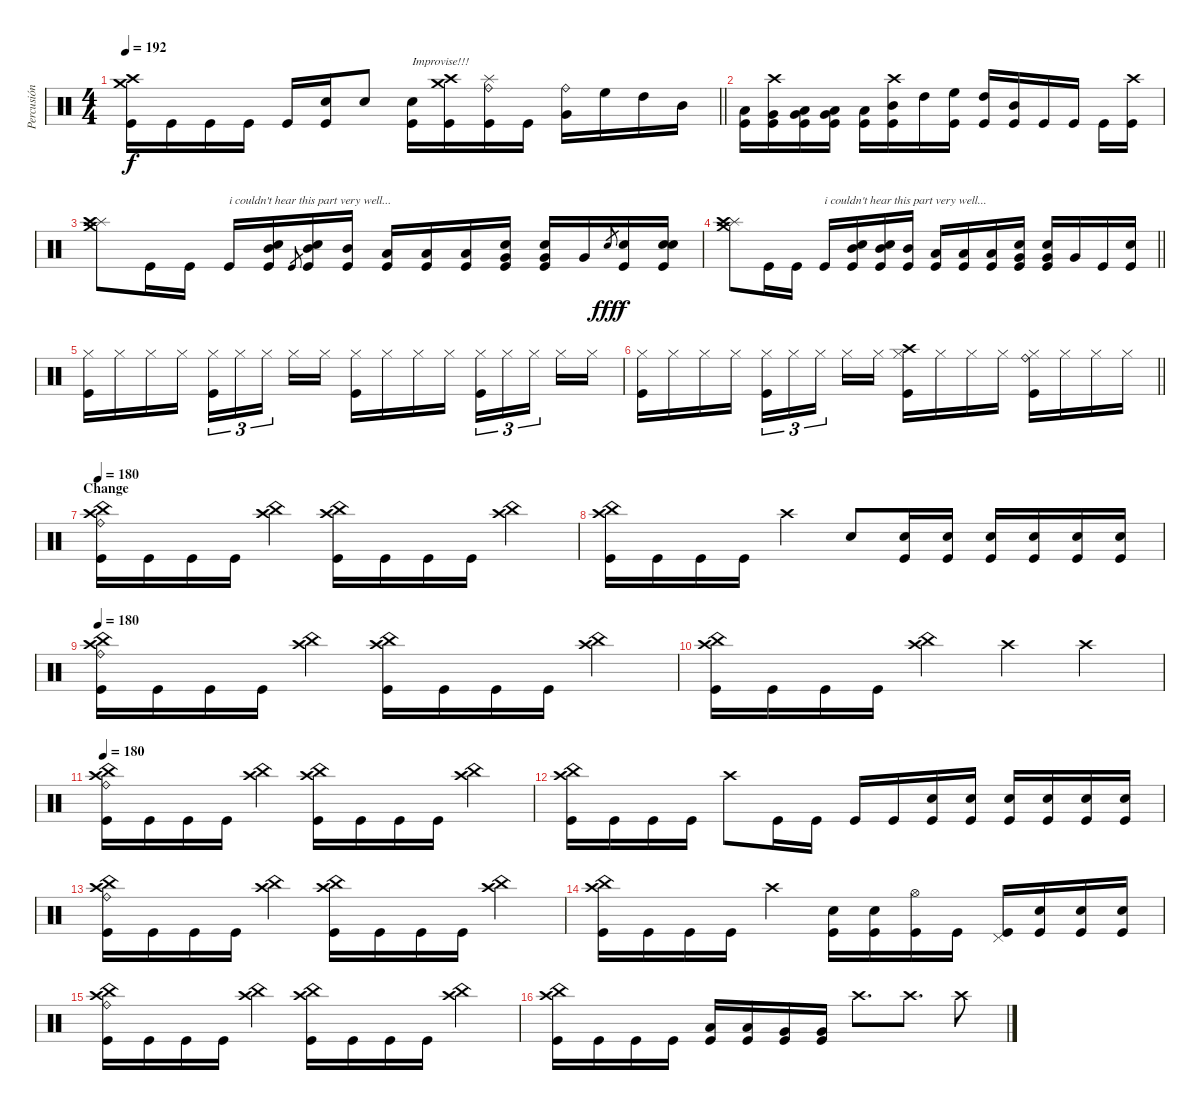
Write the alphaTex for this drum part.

\track ("Percusión" "Percusión") {instrument percussion}
\staff {score}
\articulation defaults
\ts (4 4)
\tempo 192
\clef neutral
\barLineRight lightlight
\ks c
("Crash medium (hit)" "Crash high (hit)" "Kick (hit)").16{dy f} "Kick (hit)".16 "Kick (hit)".16 "Kick (hit)".16 "Kick (hit)".16 ("Electric Snare (hit)" "Kick (hit)").16 "Electric Snare (hit)".8 ("Electric Snare (hit)" "Kick (hit)").16{txt "Improvise!!!"} ("Crash medium (hit)" "Crash high (hit)" "Kick (hit)").16 ("Splash (hit)" "Ride (bell)" "Kick (hit)").16 "Kick (hit)".16 ("Ride (bell)" "Very Low Tom (hit)").16 "High Floor Tom (hit)".16 "High Tom (hit)".16 "Mid Tom (hit)".16 |
("Low Tom (hit)" "Kick (hit)").16 ("Very Low Tom (hit)" "Crash high (hit)" "Kick (hit)").16 ("Low Floor Tom (hit)" "Very Low Tom (hit)" "Kick (hit)").16 ("Very Low Tom (hit)" "Low Floor Tom (hit)" "Kick (hit)").16 ("Low Tom (hit)" "Kick (hit)").16 ("Mid Tom (hit)" "Crash high (hit)" "Kick (hit)").16 "High Tom (hit)".16 ("High Floor Tom (hit)" "Kick (hit)").16 ("High Tom (hit)" "Kick (hit)").16 ("Mid Tom (hit)" "Kick (hit)").16 "Kick (hit)".16 "Kick (hit)".16 "Kick (hit)".16 ("Crash high (hit)" "Kick (hit)").16 |
("Crash medium (hit)" "Splash (hit)" "Crash high (hit)").8 "Kick (hit)".16 "Kick (hit)".16 "Kick (hit)".16{txt "i couldn't hear this part very well..."} ("Mid Tom (hit)" "Electric Snare (hit)" "Kick (hit)").16 "Kick (hit)".8{gr} ("Mid Tom (hit)" "Electric Snare (hit)" "Kick (hit)").16 ("Mid Tom (hit)" "Kick (hit)").16 ("Low Tom (hit)" "Kick (hit)").16 ("Low Tom (hit)" "Kick (hit)").16 ("Low Tom (hit)" "Kick (hit)").16 ("Very Low Tom (hit)" "Electric Snare (hit)" "Kick (hit)").16 ("Very Low Tom (hit)" "Electric Snare (hit)" "Kick (hit)").16 "Very Low Tom (hit)".16 "Electric Snare (hit)".8{gr dy fff} ("Kick (hit)" "Electric Snare (hit)").16{dy f} ("Kick (hit)" "Electric Snare (hit)" "Electric Snare (hit)").16 |
\barLineRight lightlight
("Crash medium (hit)" "Splash (hit)" "Crash high (hit)").8 "Kick (hit)".16 "Kick (hit)".16 "Kick (hit)".16{txt "i couldn't hear this part very well..."} ("Mid Tom (hit)" "Electric Snare (hit)" "Kick (hit)").16 ("Mid Tom (hit)" "Electric Snare (hit)" "Kick (hit)").16 ("Mid Tom (hit)" "Kick (hit)").16 ("Low Tom (hit)" "Kick (hit)").16 ("Low Tom (hit)" "Kick (hit)").16 ("Low Tom (hit)" "Kick (hit)").16 ("Very Low Tom (hit)" "Electric Snare (hit)" "Kick (hit)").16 ("Very Low Tom (hit)" "Electric Snare (hit)" "Kick (hit)").16 "Very Low Tom (hit)".16 "Kick (hit)".16 ("Kick (hit)" "Electric Snare (hit)").16 |
("Hi-Hat (closed)" "Kick (hit)").16 "Hi-Hat (closed)".16 "Hi-Hat (closed)".16 "Hi-Hat (closed)".16 ("Hi-Hat (closed)" "Kick (hit)").16{tu (3 2)} "Hi-Hat (closed)".16{tu (3 2)} "Hi-Hat (closed)".16{tu (3 2) beam splitsecondary} "Hi-Hat (closed)".16 "Hi-Hat (closed)".16 ("Hi-Hat (closed)" "Kick (hit)").16 "Hi-Hat (closed)".16 "Hi-Hat (closed)".16 "Hi-Hat (closed)".16 ("Hi-Hat (closed)" "Kick (hit)").16{tu (3 2)} "Hi-Hat (closed)".16{tu (3 2)} "Hi-Hat (closed)".16{tu (3 2) beam splitsecondary} "Hi-Hat (closed)".16 "Hi-Hat (closed)".16 |
\barLineRight lightlight
("Hi-Hat (closed)" "Kick (hit)").16 "Hi-Hat (closed)".16 "Hi-Hat (closed)".16 "Hi-Hat (closed)".16 ("Hi-Hat (closed)" "Kick (hit)").16{tu (3 2)} "Hi-Hat (closed)".16{tu (3 2)} "Hi-Hat (closed)".16{tu (3 2) beam splitsecondary} "Hi-Hat (closed)".16 "Hi-Hat (closed)".16 ("Hi-Hat (closed)" "Kick (hit)" "Crash high (hit)").16 "Hi-Hat (closed)".16 "Hi-Hat (closed)".16 "Hi-Hat (closed)".16 ("Hi-Hat (closed)" "Kick (hit)" "Ride (bell)").16 "Hi-Hat (closed)".16 "Hi-Hat (closed)".16 "Hi-Hat (closed)".16 |
\section ("" "Change")
\tempo 180
("Ride (bell)" "Crash high (hit)" "Kick (hit)" "China (hit)").16 "Kick (hit)".16 "Kick (hit)".16 "Kick (hit)".16 ("Crash high (hit)" "China (hit)").4 ("Crash high (hit)" "Kick (hit)" "China (hit)").16 "Kick (hit)".16 "Kick (hit)".16 "Kick (hit)".16 ("Crash high (hit)" "China (hit)").4 |
("Crash high (hit)" "Kick (hit)" "China (hit)").16 "Kick (hit)".16 "Kick (hit)".16 "Kick (hit)".16 "Crash high (hit)".4 "Electric Snare (hit)".8 ("Electric Snare (hit)" "Kick (hit)").16 ("Electric Snare (hit)" "Kick (hit)").16 ("Electric Snare (hit)" "Kick (hit)").16 ("Electric Snare (hit)" "Kick (hit)").16 ("Electric Snare (hit)" "Kick (hit)").16 ("Electric Snare (hit)" "Kick (hit)").16 |
\tempo 180
("Ride (bell)" "Crash high (hit)" "Kick (hit)" "China (hit)").16 "Kick (hit)".16 "Kick (hit)".16 "Kick (hit)".16 ("Crash high (hit)" "China (hit)").4 ("Crash high (hit)" "Kick (hit)" "China (hit)").16 "Kick (hit)".16 "Kick (hit)".16 "Kick (hit)".16 ("Crash high (hit)" "China (hit)").4 |
("Crash high (hit)" "Kick (hit)" "China (hit)").16 "Kick (hit)".16 "Kick (hit)".16 "Kick (hit)".16 ("China (hit)" "Crash high (hit)").4 "Crash high (hit)".4 "Crash high (hit)".4 |
\tempo 180
("Ride (bell)" "Crash high (hit)" "Kick (hit)" "China (hit)").16 "Kick (hit)".16 "Kick (hit)".16 "Kick (hit)".16 ("Crash high (hit)" "China (hit)").4 ("Crash high (hit)" "Kick (hit)" "China (hit)").16 "Kick (hit)".16 "Kick (hit)".16 "Kick (hit)".16 ("Crash high (hit)" "China (hit)").4 |
("Crash high (hit)" "Kick (hit)" "China (hit)").16 "Kick (hit)".16 "Kick (hit)".16 "Kick (hit)".16 "Crash high (hit)".8 "Kick (hit)".16 "Kick (hit)".16 "Kick (hit)".16 "Kick (hit)".16 ("Electric Snare (hit)" "Kick (hit)").16 ("Electric Snare (hit)" "Kick (hit)").16 ("Electric Snare (hit)" "Kick (hit)").16 ("Electric Snare (hit)" "Kick (hit)").16 ("Electric Snare (hit)" "Kick (hit)").16 ("Electric Snare (hit)" "Kick (hit)").16 |
("Ride (bell)" "Crash high (hit)" "Kick (hit)" "China (hit)").16 "Kick (hit)".16 "Kick (hit)".16 "Kick (hit)".16 ("Crash high (hit)" "China (hit)").4 ("Crash high (hit)" "Kick (hit)" "China (hit)").16 "Kick (hit)".16 "Kick (hit)".16 "Kick (hit)".16 ("Crash high (hit)" "China (hit)").4 |
("Crash high (hit)" "Kick (hit)" "China (hit)").16 "Kick (hit)".16 "Kick (hit)".16 "Kick (hit)".16 "Crash high (hit)".4 ("Electric Snare (hit)" "Kick (hit)").16 ("Electric Snare (hit)" "Kick (hit)").16 ("Hi-Hat (open)" "Kick (hit)").16 "Kick (hit)".16 ("Pedal Hi-Hat (hit)" "Kick (hit)").16 ("Electric Snare (hit)" "Kick (hit)").16 ("Electric Snare (hit)" "Kick (hit)").16 ("Electric Snare (hit)" "Kick (hit)").16 |
("Ride (bell)" "Crash high (hit)" "Kick (hit)" "China (hit)").16 "Kick (hit)".16 "Kick (hit)".16 "Kick (hit)".16 ("Crash high (hit)" "China (hit)").4 ("Crash high (hit)" "Kick (hit)" "China (hit)").16 "Kick (hit)".16 "Kick (hit)".16 "Kick (hit)".16 ("Crash high (hit)" "China (hit)").4 |
("Crash high (hit)" "Kick (hit)" "China (hit)").16 "Kick (hit)".16 "Kick (hit)".16 "Kick (hit)".16 ("Low Tom (hit)" "Kick (hit)").16 ("Low Tom (hit)" "Kick (hit)").16 ("Very Low Tom (hit)" "Kick (hit)").16 ("Very Low Tom (hit)" "Kick (hit)").16 "Crash high (hit)".8{d} "Crash high (hit)".8{d} "Crash high (hit)".8
